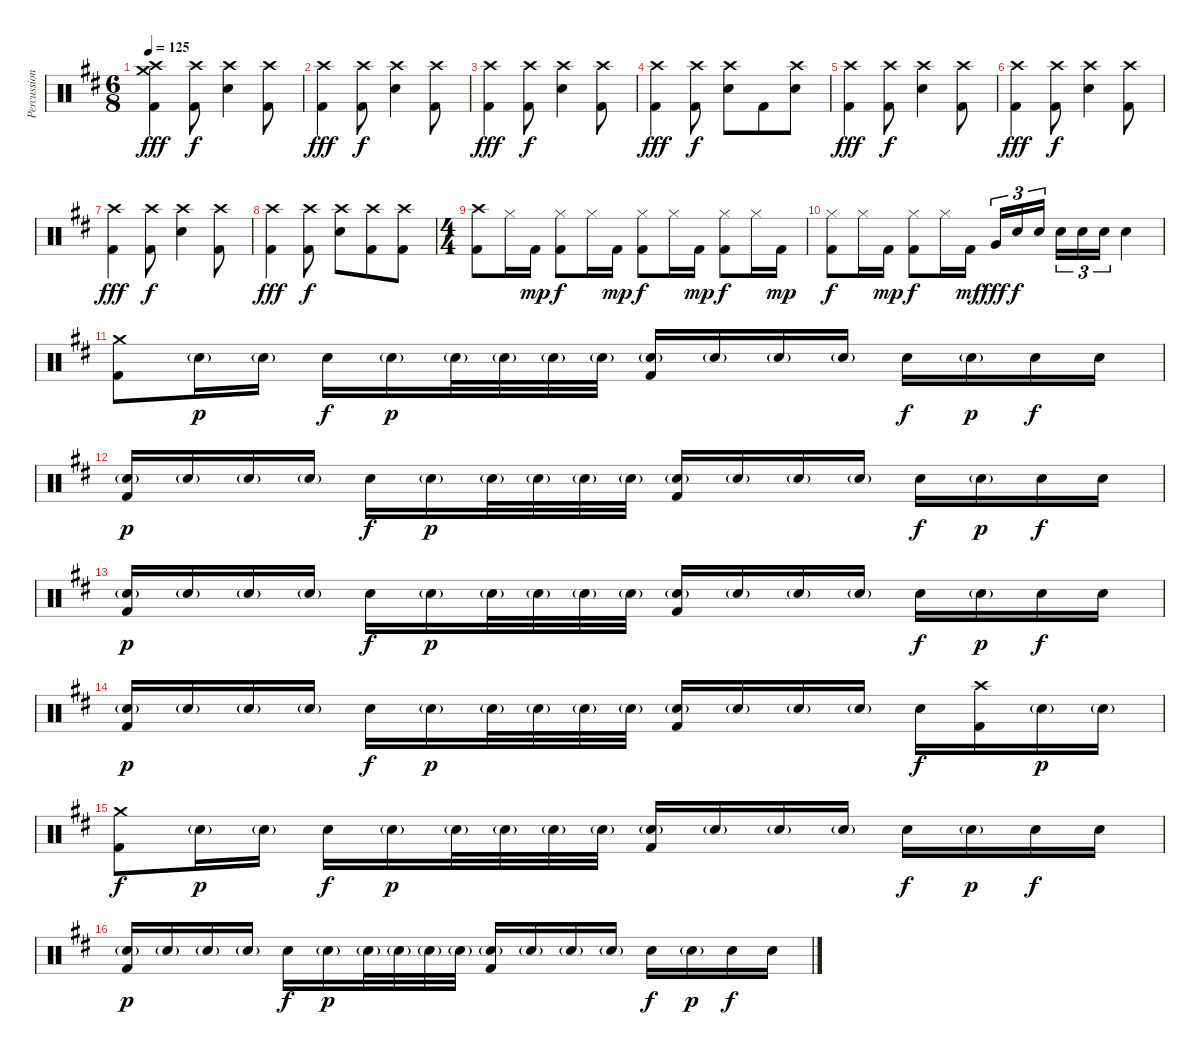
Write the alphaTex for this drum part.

\track ("Percussion" "Percussion") {instrument percussion}
\staff {score}
\articulation defaults
\ts (6 8)
\tempo 125
\clef neutral
\ks d
("Crash medium (hit)" "Crash high (hit)" "Kick (hit) 2").4{dy fff} ("Crash high (hit)" "Kick (hit) 2").8{dy f} ("Crash high (hit)" "Electric Snare (hit)").4 ("Crash high (hit)" "Kick (hit) 2").8 |
("Crash high (hit)" "Kick (hit) 2").4{dy fff} ("Crash high (hit)" "Kick (hit) 2").8{dy f} ("Crash high (hit)" "Electric Snare (hit)").4 ("Crash high (hit)" "Kick (hit) 2").8 |
("Crash high (hit)" "Kick (hit) 2").4{dy fff} ("Crash high (hit)" "Kick (hit) 2").8{dy f} ("Crash high (hit)" "Electric Snare (hit)").4 ("Crash high (hit)" "Kick (hit) 2").8 |
("Crash high (hit)" "Kick (hit) 2").4{dy fff} ("Crash high (hit)" "Kick (hit) 2").8{dy f} ("Crash high (hit)" "Electric Snare (hit)").8 "Kick (hit) 2".8 ("Crash high (hit)" "Electric Snare (hit)").8 |
("Crash high (hit)" "Kick (hit) 2").4{dy fff} ("Crash high (hit)" "Kick (hit) 2").8{dy f} ("Crash high (hit)" "Electric Snare (hit)").4 ("Crash high (hit)" "Kick (hit) 2").8 |
("Crash high (hit)" "Kick (hit) 2").4{dy fff} ("Crash high (hit)" "Kick (hit) 2").8{dy f} ("Crash high (hit)" "Electric Snare (hit)").4 ("Crash high (hit)" "Kick (hit) 2").8 |
("Crash high (hit)" "Kick (hit) 2").4{dy fff} ("Crash high (hit)" "Kick (hit) 2").8{dy f} ("Crash high (hit)" "Electric Snare (hit)").4 ("Crash high (hit)" "Kick (hit) 2").8 |
("Crash high (hit)" "Kick (hit) 2").4{dy fff} ("Crash high (hit)" "Kick (hit) 2").8{dy f} ("Crash high (hit)" "Electric Snare (hit)").8 ("Crash high (hit)" "Kick (hit) 2").8 ("Crash high (hit)" "Kick (hit) 2").8 |
\ts (4 4)
("Crash high (hit)" "Kick (hit) 2").8 "Hi-Hat (closed)".16 "Kick (hit) 2".16{dy mp} ("Hi-Hat (closed)" "Kick (hit) 2").8{dy f} "Hi-Hat (closed)".16 "Kick (hit) 2".16{dy mp} ("Hi-Hat (closed)" "Kick (hit) 2").8{dy f} "Hi-Hat (closed)".16 "Kick (hit) 2".16{dy mp} ("Hi-Hat (closed)" "Kick (hit) 2").8{dy f} "Hi-Hat (closed)".16 "Kick (hit) 2".16{dy mp} |
("Hi-Hat (closed)" "Kick (hit) 2").8{dy f} "Hi-Hat (closed)".16 "Kick (hit) 2".16{dy mp} ("Hi-Hat (closed)" "Kick (hit) 2").8{dy f} "Hi-Hat (closed)".16 "Kick (hit) 2".16{dy mf} "Very Low Tom (hit)".16{tu (3 2) dy fff} "Electric Snare (hit)".16{tu (3 2) dy f} "Electric Snare (hit)".16{tu (3 2)} "Electric Snare (hit)".16{tu (3 2)} "Electric Snare (hit)".16{tu (3 2)} "Electric Snare (hit)".16{tu (3 2)} "Electric Snare (hit)".4 |
("Crash medium (hit)" "Kick (hit) 2").8 "Electric Snare (hit)"{g}.16{dy p} "Electric Snare (hit)"{g}.16 "Electric Snare (hit)".16{dy f} "Electric Snare (hit)"{g}.16{dy p} "Electric Snare (hit)"{g}.32 "Electric Snare (hit)"{g}.32 "Electric Snare (hit)"{g}.32 "Electric Snare (hit)"{g}.32 ("Kick (hit) 2" "Electric Snare (hit)"{g}).16 "Electric Snare (hit)"{g}.16 "Electric Snare (hit)"{g}.16 "Electric Snare (hit)"{g}.16 "Electric Snare (hit)".16{dy f} "Electric Snare (hit)"{g}.16{dy p} "Electric Snare (hit)".16{dy f} "Electric Snare (hit)".16 |
("Kick (hit) 2" "Electric Snare (hit)"{g}).16{dy p} "Electric Snare (hit)"{g}.16 "Electric Snare (hit)"{g}.16 "Electric Snare (hit)"{g}.16 "Electric Snare (hit)".16{dy f} "Electric Snare (hit)"{g}.16{dy p} "Electric Snare (hit)"{g}.32 "Electric Snare (hit)"{g}.32 "Electric Snare (hit)"{g}.32 "Electric Snare (hit)"{g}.32 ("Kick (hit) 2" "Electric Snare (hit)"{g}).16 "Electric Snare (hit)"{g}.16 "Electric Snare (hit)"{g}.16 "Electric Snare (hit)"{g}.16 "Electric Snare (hit)".16{dy f} "Electric Snare (hit)"{g}.16{dy p} "Electric Snare (hit)".16{dy f} "Electric Snare (hit)".16 |
("Kick (hit) 2" "Electric Snare (hit)"{g}).16{dy p} "Electric Snare (hit)"{g}.16 "Electric Snare (hit)"{g}.16 "Electric Snare (hit)"{g}.16 "Electric Snare (hit)".16{dy f} "Electric Snare (hit)"{g}.16{dy p} "Electric Snare (hit)"{g}.32 "Electric Snare (hit)"{g}.32 "Electric Snare (hit)"{g}.32 "Electric Snare (hit)"{g}.32 ("Kick (hit) 2" "Electric Snare (hit)"{g}).16 "Electric Snare (hit)"{g}.16 "Electric Snare (hit)"{g}.16 "Electric Snare (hit)"{g}.16 "Electric Snare (hit)".16{dy f} "Electric Snare (hit)"{g}.16{dy p} "Electric Snare (hit)".16{dy f} "Electric Snare (hit)".16 |
("Kick (hit) 2" "Electric Snare (hit)"{g}).16{dy p} "Electric Snare (hit)"{g}.16 "Electric Snare (hit)"{g}.16 "Electric Snare (hit)"{g}.16 "Electric Snare (hit)".16{dy f} "Electric Snare (hit)"{g}.16{dy p} "Electric Snare (hit)"{g}.32 "Electric Snare (hit)"{g}.32 "Electric Snare (hit)"{g}.32 "Electric Snare (hit)"{g}.32 ("Kick (hit) 2" "Electric Snare (hit)"{g}).16 "Electric Snare (hit)"{g}.16 "Electric Snare (hit)"{g}.16 "Electric Snare (hit)"{g}.16 "Electric Snare (hit)".16{dy f} ("Crash high (hit)" "Kick (hit) 2").16 "Electric Snare (hit)"{g}.16{dy p} "Electric Snare (hit)"{g}.16 |
("Crash medium (hit)" "Kick (hit) 2").8{dy f} "Electric Snare (hit)"{g}.16{dy p} "Electric Snare (hit)"{g}.16 "Electric Snare (hit)".16{dy f} "Electric Snare (hit)"{g}.16{dy p} "Electric Snare (hit)"{g}.32 "Electric Snare (hit)"{g}.32 "Electric Snare (hit)"{g}.32 "Electric Snare (hit)"{g}.32 ("Kick (hit) 2" "Electric Snare (hit)"{g}).16 "Electric Snare (hit)"{g}.16 "Electric Snare (hit)"{g}.16 "Electric Snare (hit)"{g}.16 "Electric Snare (hit)".16{dy f} "Electric Snare (hit)"{g}.16{dy p} "Electric Snare (hit)".16{dy f} "Electric Snare (hit)".16 |
("Kick (hit) 2" "Electric Snare (hit)"{g}).16{dy p} "Electric Snare (hit)"{g}.16 "Electric Snare (hit)"{g}.16 "Electric Snare (hit)"{g}.16 "Electric Snare (hit)".16{dy f} "Electric Snare (hit)"{g}.16{dy p} "Electric Snare (hit)"{g}.32 "Electric Snare (hit)"{g}.32 "Electric Snare (hit)"{g}.32 "Electric Snare (hit)"{g}.32 ("Kick (hit) 2" "Electric Snare (hit)"{g}).16 "Electric Snare (hit)"{g}.16 "Electric Snare (hit)"{g}.16 "Electric Snare (hit)"{g}.16 "Electric Snare (hit)".16{dy f} "Electric Snare (hit)"{g}.16{dy p} "Electric Snare (hit)".16{dy f} "Electric Snare (hit)".16
